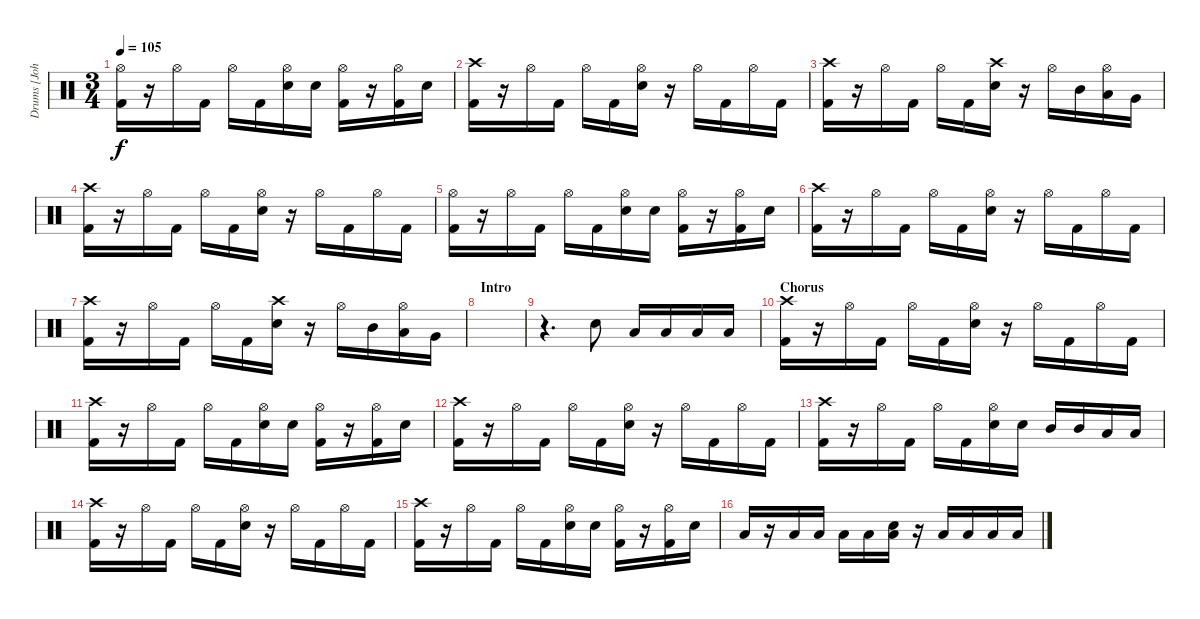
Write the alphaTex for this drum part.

\track ("Drums [John Otto]" "Drums [Joh") {instrument percussion}
\staff {score}
\articulation defaults
\ts (3 4)
\tempo 105
\clef neutral
\ks c
("Hi-Hat (open)" "Kick (hit) 2").16{dy f} r.16 "Hi-Hat (open)".16 "Kick (hit) 2".16 "Hi-Hat (open)".16 "Kick (hit) 2".16 ("Hi-Hat (open)" "Electric Snare (hit)").16 "Electric Snare (hit)".16 ("Hi-Hat (open)" "Kick (hit) 2").16 r.16 ("Hi-Hat (open)" "Kick (hit) 2").16 "Electric Snare (hit)".16 |
("Crash high (hit)" "Kick (hit) 2").16 r.16 "Hi-Hat (open)".16 "Kick (hit) 2".16 "Hi-Hat (open)".16 "Kick (hit) 2".16 ("Hi-Hat (open)" "Electric Snare (hit)").16 r.16 "Hi-Hat (open)".16 "Kick (hit) 2".16 "Hi-Hat (open)".16 "Kick (hit) 2".16 |
("Crash high (hit)" "Kick (hit) 2").16 r.16 "Hi-Hat (open)".16 "Kick (hit) 2".16 "Hi-Hat (open)".16 "Kick (hit) 2".16 ("Crash high (hit)" "Electric Snare (hit)").16 r.16 "Hi-Hat (open)".16 "Mid Tom (hit)".16 ("Hi-Hat (open)" "Low Tom (hit)").16 "Very Low Tom (hit)".16 |
("Crash high (hit)" "Kick (hit) 2").16 r.16 "Hi-Hat (open)".16 "Kick (hit) 2".16 "Hi-Hat (open)".16 "Kick (hit) 2".16 ("Hi-Hat (open)" "Electric Snare (hit)").16 r.16 "Hi-Hat (open)".16 "Kick (hit) 2".16 "Hi-Hat (open)".16 "Kick (hit) 2".16 |
("Hi-Hat (open)" "Kick (hit) 2").16 r.16 "Hi-Hat (open)".16 "Kick (hit) 2".16 "Hi-Hat (open)".16 "Kick (hit) 2".16 ("Hi-Hat (open)" "Electric Snare (hit)").16 "Electric Snare (hit)".16 ("Hi-Hat (open)" "Kick (hit) 2").16 r.16 ("Hi-Hat (open)" "Kick (hit) 2").16 "Electric Snare (hit)".16 |
("Crash high (hit)" "Kick (hit) 2").16 r.16 "Hi-Hat (open)".16 "Kick (hit) 2".16 "Hi-Hat (open)".16 "Kick (hit) 2".16 ("Hi-Hat (open)" "Electric Snare (hit)").16 r.16 "Hi-Hat (open)".16 "Kick (hit) 2".16 "Hi-Hat (open)".16 "Kick (hit) 2".16 |
("Crash high (hit)" "Kick (hit) 2").16 r.16 "Hi-Hat (open)".16 "Kick (hit) 2".16 "Hi-Hat (open)".16 "Kick (hit) 2".16 ("Crash high (hit)" "Electric Snare (hit)").16 r.16 "Hi-Hat (open)".16 "Mid Tom (hit)".16 ("Hi-Hat (open)" "Low Tom (hit)").16 "Very Low Tom (hit)".16 |
\section ("" "Intro")
|
r.4{d} "Electric Snare (hit)".8 "Low Tom (hit)".16 "Low Tom (hit)".16 "Low Tom (hit)".16 "Low Tom (hit)".16 |
\section ("" "Chorus")
("Crash high (hit)" "Kick (hit) 2").16 r.16 "Hi-Hat (open)".16 "Kick (hit) 2".16 "Hi-Hat (open)".16 "Kick (hit) 2".16 ("Hi-Hat (open)" "Electric Snare (hit)").16 r.16 "Hi-Hat (open)".16 "Kick (hit) 2".16 "Hi-Hat (open)".16 "Kick (hit) 2".16 |
("Crash high (hit)" "Kick (hit) 2").16 r.16 "Hi-Hat (open)".16 "Kick (hit) 2".16 "Hi-Hat (open)".16 "Kick (hit) 2".16 ("Hi-Hat (open)" "Electric Snare (hit)").16 "Electric Snare (hit)".16 ("Hi-Hat (open)" "Kick (hit) 2").16 r.16 ("Hi-Hat (open)" "Kick (hit) 2").16 "Electric Snare (hit)".16 |
("Crash high (hit)" "Kick (hit) 2").16 r.16 "Hi-Hat (open)".16 "Kick (hit) 2".16 "Hi-Hat (open)".16 "Kick (hit) 2".16 ("Hi-Hat (open)" "Electric Snare (hit)").16 r.16 "Hi-Hat (open)".16 "Kick (hit) 2".16 "Hi-Hat (open)".16 "Kick (hit) 2".16 |
("Crash high (hit)" "Kick (hit) 2").16 r.16 "Hi-Hat (open)".16 "Kick (hit) 2".16 "Hi-Hat (open)".16 "Kick (hit) 2".16 ("Hi-Hat (open)" "Electric Snare (hit)").16 "Electric Snare (hit)".16 "Mid Tom (hit)".16 "Mid Tom (hit)".16 "Low Tom (hit)".16 "Low Tom (hit)".16 |
("Crash high (hit)" "Kick (hit) 2").16 r.16 "Hi-Hat (open)".16 "Kick (hit) 2".16 "Hi-Hat (open)".16 "Kick (hit) 2".16 ("Hi-Hat (open)" "Electric Snare (hit)").16 r.16 "Hi-Hat (open)".16 "Kick (hit) 2".16 "Hi-Hat (open)".16 "Kick (hit) 2".16 |
("Crash high (hit)" "Kick (hit) 2").16 r.16 "Hi-Hat (open)".16 "Kick (hit) 2".16 "Hi-Hat (open)".16 "Kick (hit) 2".16 ("Hi-Hat (open)" "Electric Snare (hit)").16 "Electric Snare (hit)".16 ("Hi-Hat (open)" "Kick (hit) 2").16 r.16 ("Hi-Hat (open)" "Kick (hit) 2").16 "Electric Snare (hit)".16 |
"Low Tom (hit)".16 r.16 "Low Tom (hit)".16 "Low Tom (hit)".16 "Low Tom (hit)".16 "Low Tom (hit)".16 ("Electric Snare (hit)" "Low Tom (hit)").16 r.16 "Low Tom (hit)".16 "Low Tom (hit)".16 "Low Tom (hit)".16 "Low Tom (hit)".16
